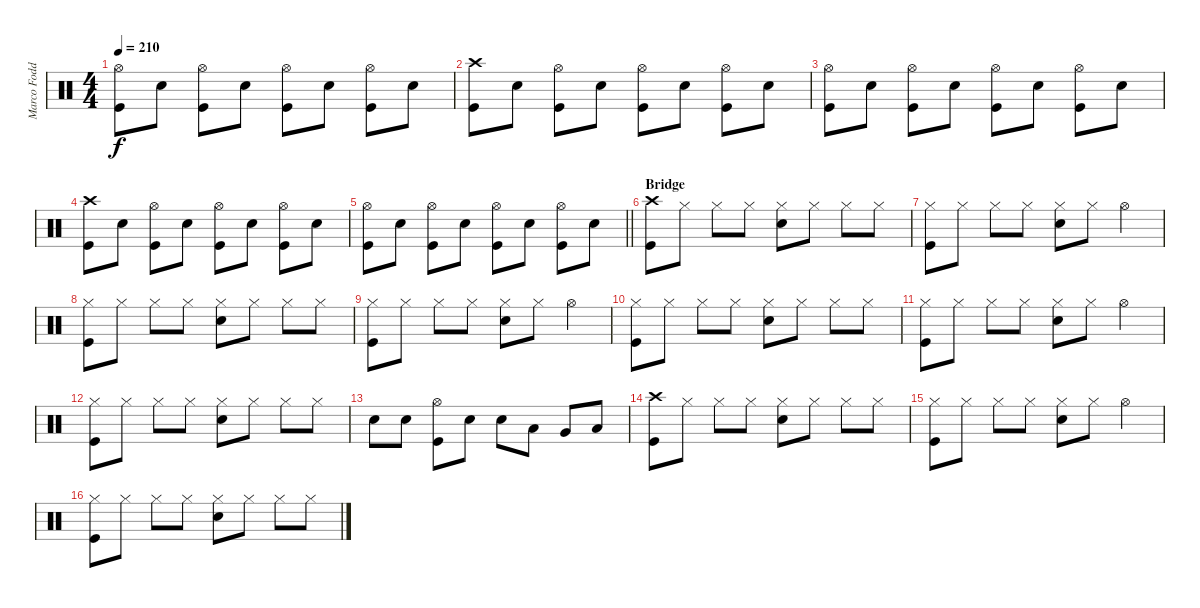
\track ("Marco Foddis" "Marco Fodd") {instrument percussion}
\staff {score}
\articulation defaults
\ts (4 4)
\tempo 210
\clef neutral
\ks c
("Hi-Hat (open)" "Kick (hit)").8{dy f} "Snare (hit) 2".8 ("Hi-Hat (open)" "Kick (hit)").8 "Snare (hit) 2".8 ("Hi-Hat (open)" "Kick (hit)").8 "Snare (hit) 2".8 ("Hi-Hat (open)" "Kick (hit)").8 "Snare (hit) 2".8 |
("Crash high (hit)" "Kick (hit)").8 "Snare (hit) 2".8 ("Hi-Hat (open)" "Kick (hit)").8 "Snare (hit) 2".8 ("Hi-Hat (open)" "Kick (hit)").8 "Snare (hit) 2".8 ("Hi-Hat (open)" "Kick (hit)").8 "Snare (hit) 2".8 |
("Hi-Hat (open)" "Kick (hit)").8 "Snare (hit) 2".8 ("Hi-Hat (open)" "Kick (hit)").8 "Snare (hit) 2".8 ("Hi-Hat (open)" "Kick (hit)").8 "Snare (hit) 2".8 ("Hi-Hat (open)" "Kick (hit)").8 "Snare (hit) 2".8 |
("Crash high (hit)" "Kick (hit)").8 "Snare (hit) 2".8 ("Hi-Hat (open)" "Kick (hit)").8 "Snare (hit) 2".8 ("Hi-Hat (open)" "Kick (hit)").8 "Snare (hit) 2".8 ("Hi-Hat (open)" "Kick (hit)").8 "Snare (hit) 2".8 |
\barLineRight lightlight
("Hi-Hat (open)" "Kick (hit)").8 "Snare (hit) 2".8 ("Hi-Hat (open)" "Kick (hit)").8 "Snare (hit) 2".8 ("Hi-Hat (open)" "Kick (hit)").8 "Snare (hit) 2".8 ("Hi-Hat (open)" "Kick (hit)").8 "Snare (hit) 2".8 |
\section ("" "Bridge")
("Crash high (hit)" "Kick (hit)").8 "Hi-Hat (closed)".8 "Hi-Hat (closed)".8 "Hi-Hat (closed)".8 ("Hi-Hat (closed)" "Snare (hit) 2").8 "Hi-Hat (closed)".8 "Hi-Hat (closed)".8 "Hi-Hat (closed)".8 |
("Hi-Hat (closed)" "Kick (hit)").8 "Hi-Hat (closed)".8 "Hi-Hat (closed)".8 "Hi-Hat (closed)".8 ("Hi-Hat (closed)" "Snare (hit) 2").8 "Hi-Hat (closed)".8 "Hi-Hat (open)".4 |
("Hi-Hat (closed)" "Kick (hit)").8 "Hi-Hat (closed)".8 "Hi-Hat (closed)".8 "Hi-Hat (closed)".8 ("Hi-Hat (closed)" "Snare (hit) 2").8 "Hi-Hat (closed)".8 "Hi-Hat (closed)".8 "Hi-Hat (closed)".8 |
("Hi-Hat (closed)" "Kick (hit)").8 "Hi-Hat (closed)".8 "Hi-Hat (closed)".8 "Hi-Hat (closed)".8 ("Hi-Hat (closed)" "Snare (hit) 2").8 "Hi-Hat (closed)".8 "Hi-Hat (open)".4 |
("Hi-Hat (closed)" "Kick (hit)").8 "Hi-Hat (closed)".8 "Hi-Hat (closed)".8 "Hi-Hat (closed)".8 ("Hi-Hat (closed)" "Snare (hit) 2").8 "Hi-Hat (closed)".8 "Hi-Hat (closed)".8 "Hi-Hat (closed)".8 |
("Hi-Hat (closed)" "Kick (hit)").8 "Hi-Hat (closed)".8 "Hi-Hat (closed)".8 "Hi-Hat (closed)".8 ("Hi-Hat (closed)" "Snare (hit) 2").8 "Hi-Hat (closed)".8 "Hi-Hat (open)".4 |
("Hi-Hat (closed)" "Kick (hit)").8 "Hi-Hat (closed)".8 "Hi-Hat (closed)".8 "Hi-Hat (closed)".8 ("Hi-Hat (closed)" "Snare (hit) 2").8 "Hi-Hat (closed)".8 "Hi-Hat (closed)".8 "Hi-Hat (closed)".8 |
"Snare (hit) 2".8 "Snare (hit) 2".8 ("Hi-Hat (open)" "Kick (hit)").8 "Snare (hit) 2".8 "Snare (hit) 2".8 "Low Tom (hit)".8 "Very Low Tom (hit)".8 "Low Floor Tom (hit)".8 |
("Crash high (hit)" "Kick (hit)").8 "Hi-Hat (closed)".8 "Hi-Hat (closed)".8 "Hi-Hat (closed)".8 ("Hi-Hat (closed)" "Snare (hit) 2").8 "Hi-Hat (closed)".8 "Hi-Hat (closed)".8 "Hi-Hat (closed)".8 |
("Hi-Hat (closed)" "Kick (hit)").8 "Hi-Hat (closed)".8 "Hi-Hat (closed)".8 "Hi-Hat (closed)".8 ("Hi-Hat (closed)" "Snare (hit) 2").8 "Hi-Hat (closed)".8 "Hi-Hat (open)".4 |
("Hi-Hat (closed)" "Kick (hit)").8 "Hi-Hat (closed)".8 "Hi-Hat (closed)".8 "Hi-Hat (closed)".8 ("Hi-Hat (closed)" "Snare (hit) 2").8 "Hi-Hat (closed)".8 "Hi-Hat (closed)".8 "Hi-Hat (closed)".8
